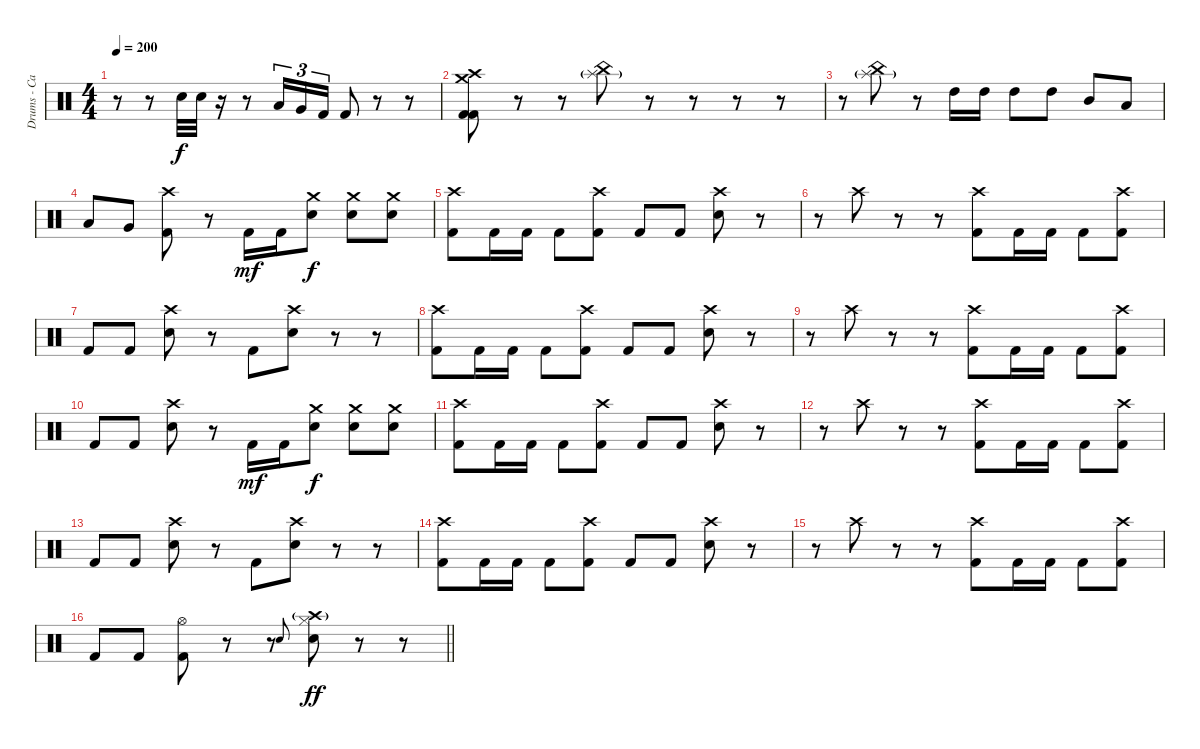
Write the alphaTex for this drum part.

\track ("Drums - Carlos Cruz" "Drums - Ca") {instrument percussion}
\staff {score}
\articulation defaults
\ts (4 4)
\tempo 200
\clef neutral
\ks c
r.8{dy f} r.8 "Snare (hit) 2".32 "Snare (hit) 2".32 r.16 r.8 "Low Floor Tom (hit)".16{tu (3 2)} "Very Low Tom (hit)".16{tu (3 2)} "Kick (hit) 2".16{tu (3 2)} "Kick (hit) 2".8 r.8 r.8 |
("Crash medium (hit)" "Crash high (hit)" "Kick (hit) 2" "Kick (hit) 2").8 r.8 r.8 ("China (hit)" "Splash (hit)"{g}).8 r.8 r.8 r.8 r.8 |
r.8 ("China (hit)" "Splash (hit)"{g}).8 r.8 "High Tom (hit)".16 "High Tom (hit)".16 "High Tom (hit)".8 "High Tom (hit)".8 "Mid Tom (hit)".8 "Low Tom (hit)".8 |
"Low Tom (hit)".8 "Very Low Tom (hit)".8 ("Crash high (hit)" "Kick (hit) 2").8 r.8 "Kick (hit) 2".16{dy mf} "Kick (hit) 2".16 ("Crash medium (hit)" "Snare (hit) 2").8{dy f} ("Crash medium (hit)" "Snare (hit) 2").8 ("Crash medium (hit)" "Snare (hit) 2").8 |
("Crash high (hit)" "Kick (hit) 2").8 "Kick (hit) 2".16 "Kick (hit) 2".16 "Kick (hit) 2".8 ("Crash high (hit)" "Kick (hit) 2").8 "Kick (hit) 2".8 "Kick (hit) 2".8 ("Crash high (hit)" "Snare (hit) 2").8 r.8 |
r.8 "Crash high (hit)".8 r.8 r.8 ("Crash high (hit)" "Kick (hit) 2").8 "Kick (hit) 2".16 "Kick (hit) 2".16 "Kick (hit) 2".8 ("Crash high (hit)" "Kick (hit) 2").8 |
"Kick (hit) 2".8 "Kick (hit) 2".8 ("Crash high (hit)" "Snare (hit) 2").8 r.8 "Kick (hit) 2".8 ("Crash high (hit)" "Snare (hit) 2").8 r.8 r.8 |
("Crash high (hit)" "Kick (hit) 2").8 "Kick (hit) 2".16 "Kick (hit) 2".16 "Kick (hit) 2".8 ("Crash high (hit)" "Kick (hit) 2").8 "Kick (hit) 2".8 "Kick (hit) 2".8 ("Crash high (hit)" "Snare (hit) 2").8 r.8 |
r.8 "Crash high (hit)".8 r.8 r.8 ("Crash high (hit)" "Kick (hit) 2").8 "Kick (hit) 2".16 "Kick (hit) 2".16 "Kick (hit) 2".8 ("Crash high (hit)" "Kick (hit) 2").8 |
"Kick (hit) 2".8 "Kick (hit) 2".8 ("Crash high (hit)" "Snare (hit) 2").8 r.8 "Kick (hit) 2".16{dy mf} "Kick (hit) 2".16 ("Crash medium (hit)" "Snare (hit) 2").8{dy f} ("Crash medium (hit)" "Snare (hit) 2").8 ("Crash medium (hit)" "Snare (hit) 2").8 |
("Crash high (hit)" "Kick (hit) 2").8 "Kick (hit) 2".16 "Kick (hit) 2".16 "Kick (hit) 2".8 ("Crash high (hit)" "Kick (hit) 2").8 "Kick (hit) 2".8 "Kick (hit) 2".8 ("Crash high (hit)" "Snare (hit) 2").8 r.8 |
r.8 "Crash high (hit)".8 r.8 r.8 ("Crash high (hit)" "Kick (hit) 2").8 "Kick (hit) 2".16 "Kick (hit) 2".16 "Kick (hit) 2".8 ("Crash high (hit)" "Kick (hit) 2").8 |
"Kick (hit) 2".8 "Kick (hit) 2".8 ("Crash high (hit)" "Snare (hit) 2").8 r.8 "Kick (hit) 2".8 ("Crash high (hit)" "Snare (hit) 2").8 r.8 r.8 |
("Crash high (hit)" "Kick (hit) 2").8 "Kick (hit) 2".16 "Kick (hit) 2".16 "Kick (hit) 2".8 ("Crash high (hit)" "Kick (hit) 2").8 "Kick (hit) 2".8 "Kick (hit) 2".8 ("Crash high (hit)" "Snare (hit) 2").8 r.8 |
r.8 "Crash high (hit)".8 r.8 r.8 ("Crash high (hit)" "Kick (hit) 2").8 "Kick (hit) 2".16 "Kick (hit) 2".16 "Kick (hit) 2".8 ("Crash high (hit)" "Kick (hit) 2").8 |
\barLineRight lightlight "Kick (hit) 2".8 "Kick (hit) 2".8
("Hi-Hat (open)" "Kick (hit) 2").8 r.8 r.8 "Snare (hit) 2".8{gr onbeat} ("Crash high (hit)"{g} "Hi-Hat (closed)" "Snare (hit) 2").8{dy ff} r.8 r.8
